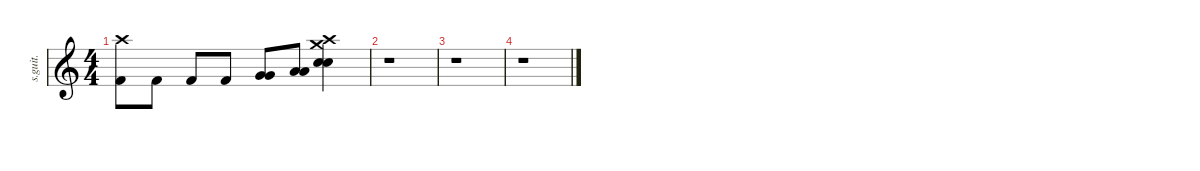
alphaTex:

\defaultSystemsLayout 4
\hideDynamics
\bracketExtendMode nobrackets
\track ("Batterie" "s.guit.") {instrument percussion}
\staff {score}
\articulation defaults
\ts (4 4)
\tempo (170 hide)
\clef g2
\ks c
("Crash high (hit)" "Kick (hit) 2").8{lyrics (0 "") lyrics (1 "") lyrics (2 "") lyrics (3 "") lyrics (4 "") dy f} "Kick (hit) 2".8{lyrics (0 "") lyrics (1 "") lyrics (2 "") lyrics (3 "") lyrics (4 "") dy fff} "Kick (hit) 2".8{lyrics (0 "") lyrics (1 "") lyrics (2 "") lyrics (3 "") lyrics (4 "")} "Kick (hit) 2".8{lyrics (0 "") lyrics (1 "") lyrics (2 "") lyrics (3 "") lyrics (4 "")} ("Very Low Tom (hit)" "Very Low Tom (hit)").8{lyrics (0 "") lyrics (1 "") lyrics (2 "") lyrics (3 "") lyrics (4 "")} ("Low Floor Tom (hit)" "Low Floor Tom (hit)").8{lyrics (0 "") lyrics (1 "") lyrics (2 "") lyrics (3 "") lyrics (4 "")} ("Crash medium (hit)" "Crash high (hit)" "Electric Snare (hit)" "Electric Snare (hit)").4{lyrics (0 "") lyrics (1 "") lyrics (2 "") lyrics (3 "") lyrics (4 "")} |
r.1 |
r.1 |
r.1
